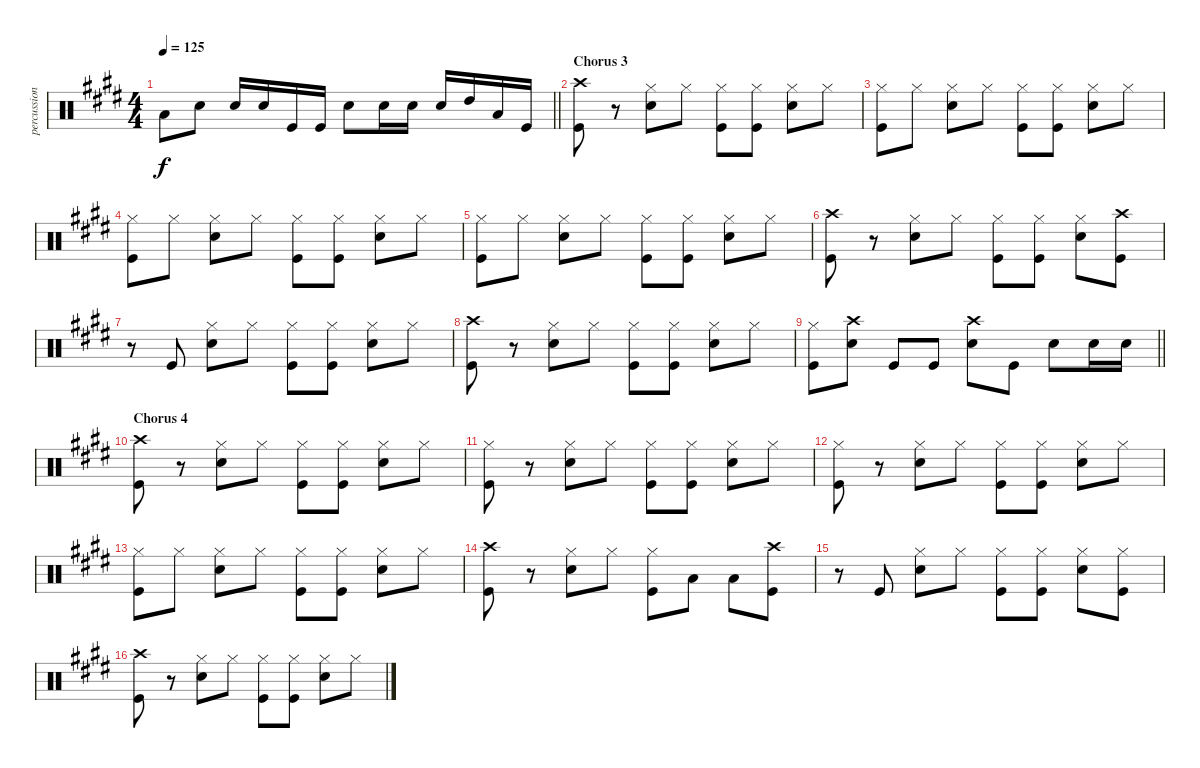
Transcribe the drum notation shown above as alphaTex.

\track ("percussion" "percussion") {instrument percussion}
\staff {score}
\articulation defaults
\ts (4 4)
\tempo 125
\clef neutral
\barLineRight lightlight
\ks e "Low Floor Tom (hit)".8{dy f} "Electric Snare (hit)".8 "Electric Snare (hit)".16 "Electric Snare (hit)".16 "Kick (hit)".16 "Kick (hit)".16 "Electric Snare (hit)".8 "Electric Snare (hit)".16 "Electric Snare (hit)".16 "Electric Snare (hit)".16 "High Tom (hit)".16 "Low Tom (hit)".16 "Kick (hit)".16
|
\section ("" "Chorus 3")
("Crash high (hit)" "Kick (hit)").8 r.8 ("Electric Snare (hit)" "Hi-Hat (closed)").8 "Hi-Hat (closed)".8 ("Hi-Hat (closed)" "Kick (hit)").8 ("Hi-Hat (closed)" "Kick (hit)").8 ("Electric Snare (hit)" "Hi-Hat (closed)").8 "Hi-Hat (closed)".8 |
("Hi-Hat (closed)" "Kick (hit)").8 "Hi-Hat (closed)".8 ("Electric Snare (hit)" "Hi-Hat (closed)").8 "Hi-Hat (closed)".8 ("Hi-Hat (closed)" "Kick (hit)").8 ("Hi-Hat (closed)" "Kick (hit)").8 ("Electric Snare (hit)" "Hi-Hat (closed)").8 "Hi-Hat (closed)".8 |
("Hi-Hat (closed)" "Kick (hit)").8 "Hi-Hat (closed)".8 ("Electric Snare (hit)" "Hi-Hat (closed)").8 "Hi-Hat (closed)".8 ("Hi-Hat (closed)" "Kick (hit)").8 ("Hi-Hat (closed)" "Kick (hit)").8 ("Electric Snare (hit)" "Hi-Hat (closed)").8 "Hi-Hat (closed)".8 |
("Hi-Hat (closed)" "Kick (hit)").8 "Hi-Hat (closed)".8 ("Electric Snare (hit)" "Hi-Hat (closed)").8 "Hi-Hat (closed)".8 ("Hi-Hat (closed)" "Kick (hit)").8 ("Hi-Hat (closed)" "Kick (hit)").8 ("Electric Snare (hit)" "Hi-Hat (closed)").8 "Hi-Hat (closed)".8 |
("Crash high (hit)" "Kick (hit)").8 r.8 ("Electric Snare (hit)" "Hi-Hat (closed)").8 "Hi-Hat (closed)".8 ("Hi-Hat (closed)" "Kick (hit)").8 ("Hi-Hat (closed)" "Kick (hit)").8 ("Electric Snare (hit)" "Hi-Hat (closed)").8 ("Crash high (hit)" "Kick (hit)").8 |
r.8 "Kick (hit)".8 ("Electric Snare (hit)" "Hi-Hat (closed)").8 "Hi-Hat (closed)".8 ("Hi-Hat (closed)" "Kick (hit)").8 ("Hi-Hat (closed)" "Kick (hit)").8 ("Electric Snare (hit)" "Hi-Hat (closed)").8 "Hi-Hat (closed)".8 |
("Crash high (hit)" "Kick (hit)").8 r.8 ("Electric Snare (hit)" "Hi-Hat (closed)").8 "Hi-Hat (closed)".8 ("Hi-Hat (closed)" "Kick (hit)").8 ("Hi-Hat (closed)" "Kick (hit)").8 ("Electric Snare (hit)" "Hi-Hat (closed)").8 "Hi-Hat (closed)".8 |
\barLineRight lightlight
("Hi-Hat (closed)" "Kick (hit)").8 ("Crash high (hit)" "Electric Snare (hit)").8 "Kick (hit)".8 "Kick (hit)".8 ("Crash high (hit)" "Electric Snare (hit)").8 "Kick (hit)".8 "Electric Snare (hit)".8 "Electric Snare (hit)".16 "Electric Snare (hit)".16 |
\section ("" "Chorus 4")
("Crash high (hit)" "Kick (hit)").8 r.8 ("Electric Snare (hit)" "Hi-Hat (closed)").8 "Hi-Hat (closed)".8 ("Hi-Hat (closed)" "Kick (hit)").8 ("Hi-Hat (closed)" "Kick (hit)").8 ("Electric Snare (hit)" "Hi-Hat (closed)").8 "Hi-Hat (closed)".8 |
("Hi-Hat (closed)" "Kick (hit)").8 r.8 ("Electric Snare (hit)" "Hi-Hat (closed)").8 "Hi-Hat (closed)".8 ("Hi-Hat (closed)" "Kick (hit)").8 ("Hi-Hat (closed)" "Kick (hit)").8 ("Electric Snare (hit)" "Hi-Hat (closed)").8 "Hi-Hat (closed)".8 |
("Hi-Hat (closed)" "Kick (hit)").8 r.8 ("Electric Snare (hit)" "Hi-Hat (closed)").8 "Hi-Hat (closed)".8 ("Hi-Hat (closed)" "Kick (hit)").8 ("Hi-Hat (closed)" "Kick (hit)").8 ("Electric Snare (hit)" "Hi-Hat (closed)").8 "Hi-Hat (closed)".8 |
("Hi-Hat (closed)" "Kick (hit)").8 "Hi-Hat (closed)".8 ("Electric Snare (hit)" "Hi-Hat (closed)").8 "Hi-Hat (closed)".8 ("Hi-Hat (closed)" "Kick (hit)").8 ("Hi-Hat (closed)" "Kick (hit)").8 ("Electric Snare (hit)" "Hi-Hat (closed)").8 "Hi-Hat (closed)".8 |
("Crash high (hit)" "Kick (hit)").8 r.8 ("Electric Snare (hit)" "Hi-Hat (closed)").8 "Hi-Hat (closed)".8 ("Hi-Hat (closed)" "Kick (hit)").8 "Low Tom (hit)".8 "Low Tom (hit)".8 ("Crash high (hit)" "Kick (hit)").8 |
r.8 "Kick (hit)".8 ("Electric Snare (hit)" "Hi-Hat (closed)").8 "Hi-Hat (closed)".8 ("Hi-Hat (closed)" "Kick (hit)").8 ("Hi-Hat (closed)" "Kick (hit)").8 ("Electric Snare (hit)" "Hi-Hat (closed)").8 ("Hi-Hat (closed)" "Kick (hit)").8 |
("Crash high (hit)" "Kick (hit)").8 r.8 ("Electric Snare (hit)" "Hi-Hat (closed)").8 "Hi-Hat (closed)".8 ("Hi-Hat (closed)" "Kick (hit)").8 ("Hi-Hat (closed)" "Kick (hit)").8 ("Electric Snare (hit)" "Hi-Hat (closed)").8 "Hi-Hat (closed)".8
